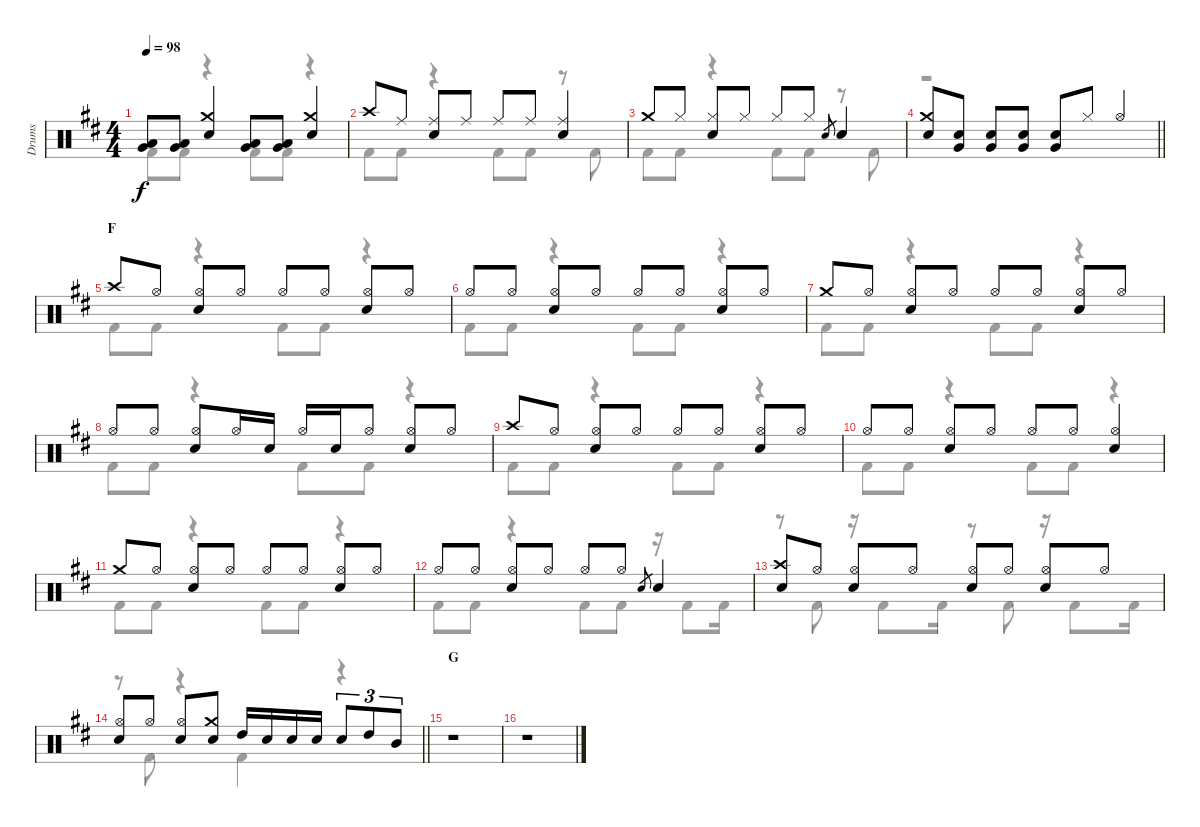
\track ("Drums" "Drums") {instrument percussion}
\staff {score}
\articulation defaults
\voice
\ts (4 4)
\tempo 98
\clef neutral
\ks d
("Low Tom (hit)" "Very Low Tom (hit)").8{dy f} ("Low Tom (hit)" "Very Low Tom (hit)").8 ("Crash medium (hit)" "Snare (hit) 2").4 ("Low Tom (hit)" "Very Low Tom (hit)").8 ("Low Tom (hit)" "Very Low Tom (hit)").8 ("Crash medium (hit)" "Snare (hit) 2").4 |
"Crash high (hit)".8 "Ride (middle)".8 ("Ride (middle)" "Snare (hit) 2").8 "Ride (middle)".8 "Ride (middle)".8 "Ride (middle)".8 ("Ride (middle)" "Snare (hit) 2").4 |
"Crash medium (hit)".8 "Hi-Hat (closed)".8 ("Hi-Hat (closed)" "Snare (hit) 2").8 "Hi-Hat (closed)".8 "Hi-Hat (closed)".8 "Hi-Hat (closed)".8 "Snare (hit) 2".8{gr} "Snare (hit) 2".4 |
\barLineRight lightlight
("Crash medium (hit)" "Snare (hit) 2").8 ("Snare (hit) 2" "Very Low Tom (hit)").8 ("Snare (hit) 2" "Very Low Tom (hit)").8 ("Snare (hit) 2" "Very Low Tom (hit)").8 ("Snare (hit) 2" "Very Low Tom (hit)").8 "Hi-Hat (closed)".8 "Hi-Hat (open)".4 |
\section ("" "F")
"Crash high (hit)".8 "Hi-Hat (open)".8 ("Hi-Hat (open)" "Snare (hit) 2").8 "Hi-Hat (open)".8 "Hi-Hat (open)".8 "Hi-Hat (open)".8 ("Hi-Hat (open)" "Snare (hit) 2").8 "Hi-Hat (open)".8 |
"Hi-Hat (open)".8 "Hi-Hat (open)".8 ("Hi-Hat (open)" "Snare (hit) 2").8 "Hi-Hat (open)".8 "Hi-Hat (open)".8 "Hi-Hat (open)".8 ("Hi-Hat (open)" "Snare (hit) 2").8 "Hi-Hat (open)".8 |
"Crash medium (hit)".8 "Hi-Hat (open)".8 ("Hi-Hat (open)" "Snare (hit) 2").8 "Hi-Hat (open)".8 "Hi-Hat (open)".8 "Hi-Hat (open)".8 ("Hi-Hat (open)" "Snare (hit) 2").8 "Hi-Hat (open)".8 |
"Hi-Hat (open)".8 "Hi-Hat (open)".8 ("Hi-Hat (open)" "Snare (hit) 2").8 "Hi-Hat (open)".16 "Snare (hit) 2".16 "Hi-Hat (open)".16 "Snare (hit) 2".16 "Hi-Hat (open)".8 ("Hi-Hat (open)" "Snare (hit) 2").8 "Hi-Hat (open)".8 |
"Crash high (hit)".8 "Hi-Hat (open)".8 ("Hi-Hat (open)" "Snare (hit) 2").8 "Hi-Hat (open)".8 "Hi-Hat (open)".8 "Hi-Hat (open)".8 ("Hi-Hat (open)" "Snare (hit) 2").8 "Hi-Hat (open)".8 |
"Hi-Hat (open)".8 "Hi-Hat (open)".8 ("Hi-Hat (open)" "Snare (hit) 2").8 "Hi-Hat (open)".8 "Hi-Hat (open)".8 "Hi-Hat (open)".8 ("Hi-Hat (open)" "Snare (hit) 2").4 |
"Crash medium (hit)".8 "Hi-Hat (open)".8 ("Hi-Hat (open)" "Snare (hit) 2").8 "Hi-Hat (open)".8 "Hi-Hat (open)".8 "Hi-Hat (open)".8 ("Hi-Hat (open)" "Snare (hit) 2").8 "Hi-Hat (open)".8 |
"Hi-Hat (open)".8 "Hi-Hat (open)".8 ("Hi-Hat (open)" "Snare (hit) 2").8 "Hi-Hat (open)".8 "Hi-Hat (open)".8 "Hi-Hat (open)".8 "Snare (hit) 2".8{gr} "Snare (hit) 2".4 |
("Crash high (hit)" "Snare (hit) 2").8 "Hi-Hat (open)".8 ("Hi-Hat (open)" "Snare (hit) 2").8 "Hi-Hat (open)".8 ("Hi-Hat (open)" "Snare (hit) 2").8 "Hi-Hat (open)".8 ("Hi-Hat (open)" "Snare (hit) 2").8 "Hi-Hat (open)".8 |
\barLineRight lightlight
("Hi-Hat (open)" "Snare (hit) 2").8 "Hi-Hat (open)".8 ("Hi-Hat (open)" "Snare (hit) 2").8 ("Crash medium (hit)" "Snare (hit) 2").8 "High Tom (hit)".16 "Snare (hit) 2".16 "Snare (hit) 2".16 "Snare (hit) 2".16 "Snare (hit) 2".8{tu (3 2)} "High Tom (hit)".8{tu (3 2)} "Mid Tom (hit)".8{tu (3 2)} |
\section ("" "G")
r.1 |
r.1
\voice
\clef neutral
\ottava regular
\simile none
\ks d "Kick (hit) 2".8{dy f} "Kick (hit) 2".8
r.4 "Kick (hit) 2".8 "Kick (hit) 2".8 r.4 |
"Kick (hit) 2".8 "Kick (hit) 2".8 r.4 "Kick (hit) 2".8 "Kick (hit) 2".8 r.8 "Kick (hit) 2".8 |
"Kick (hit) 2".8 "Kick (hit) 2".8 r.4 "Kick (hit) 2".8 "Kick (hit) 2".8 r.8 "Kick (hit) 2".8 |
\barLineRight lightlight
r.1 |
"Kick (hit) 2".8 "Kick (hit) 2".8 r.4 "Kick (hit) 2".8 "Kick (hit) 2".8 r.4 |
"Kick (hit) 2".8 "Kick (hit) 2".8 r.4 "Kick (hit) 2".8 "Kick (hit) 2".8 r.4 |
"Kick (hit) 2".8 "Kick (hit) 2".8 r.4 "Kick (hit) 2".8 "Kick (hit) 2".8 r.4 |
"Kick (hit) 2".8 "Kick (hit) 2".8 r.4 "Kick (hit) 2".8 "Kick (hit) 2".8 r.4 |
"Kick (hit) 2".8 "Kick (hit) 2".8 r.4 "Kick (hit) 2".8 "Kick (hit) 2".8 r.4 |
"Kick (hit) 2".8 "Kick (hit) 2".8 r.4 "Kick (hit) 2".8 "Kick (hit) 2".8 r.4 |
"Kick (hit) 2".8 "Kick (hit) 2".8 r.4 "Kick (hit) 2".8 "Kick (hit) 2".8 r.4 |
"Kick (hit) 2".8 "Kick (hit) 2".8 r.4 "Kick (hit) 2".8 "Kick (hit) 2".8 r.16 "Kick (hit) 2".8 "Kick (hit) 2".16 |
r.8 "Kick (hit) 2".8 r.16 "Kick (hit) 2".8 "Kick (hit) 2".16 r.8 "Kick (hit) 2".8 r.16 "Kick (hit) 2".8 "Kick (hit) 2".16 |
\barLineRight lightlight
r.8 "Kick (hit) 2".8 r.4 "Kick (hit) 2".4 r.4 |
r.1 |
r.1
